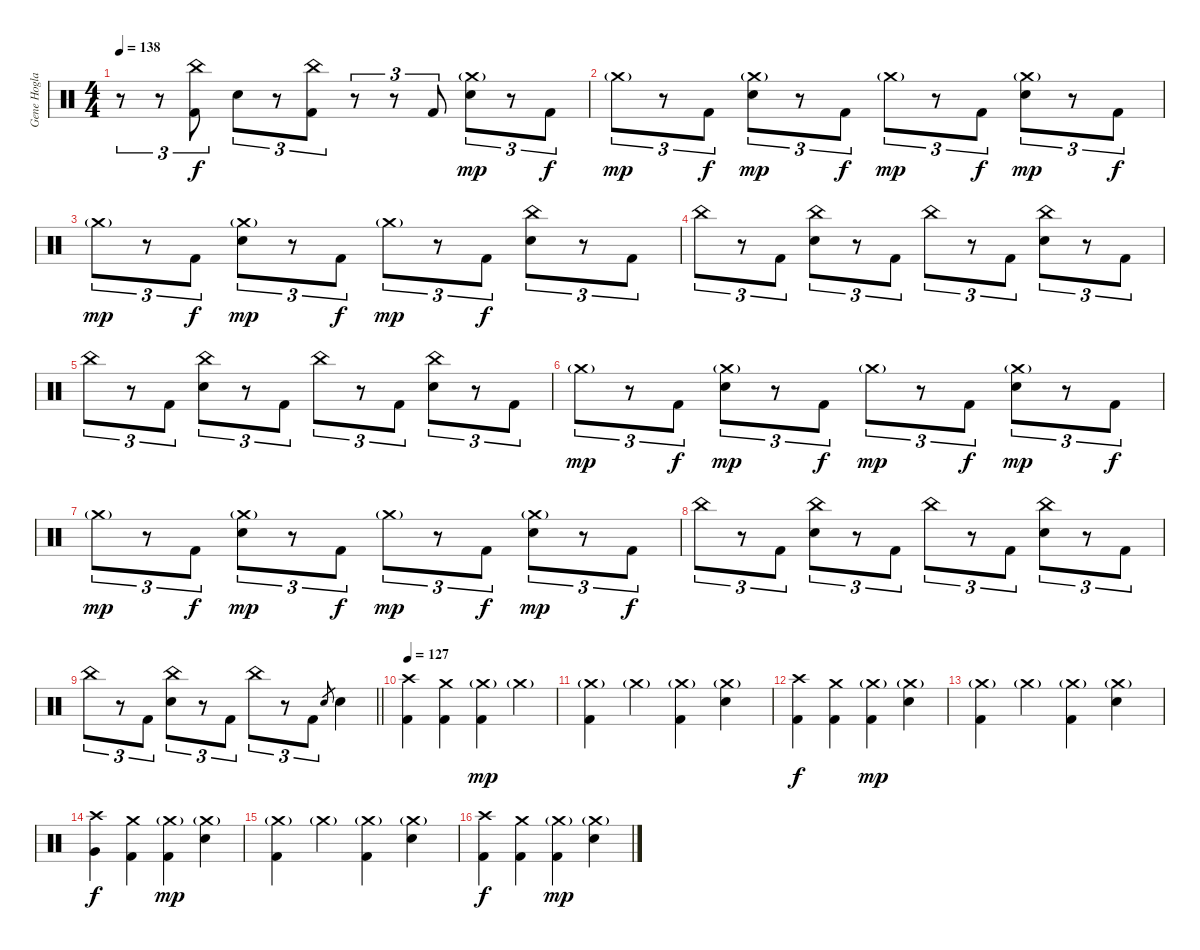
\track ("Gene Hoglan" "Gene Hogla") {instrument percussion}
\staff {score}
\articulation defaults
\ts (4 4)
\tempo 138
\clef neutral
\ks c
r.8{tu (3 2) dy f} r.8{tu (3 2)} ("China (hit)" "Kick (hit) 2").8{tu (3 2)} "Electric Snare (hit)".8{tu (3 2)} r.8{tu (3 2)} ("China (hit)" "Kick (hit) 2").8{tu (3 2)} r.8{tu (3 2)} r.8{tu (3 2)} "Kick (hit) 2".8{tu (3 2)} ("Crash medium (hit)"{g} "Electric Snare (hit)").8{tu (3 2) dy mp} r.8{tu (3 2)} "Kick (hit) 2".8{tu (3 2) dy f} |
"Crash medium (hit)"{g}.8{tu (3 2) dy mp} r.8{tu (3 2)} "Kick (hit) 2".8{tu (3 2) dy f} ("Crash medium (hit)"{g} "Electric Snare (hit)").8{tu (3 2) dy mp} r.8{tu (3 2)} "Kick (hit) 2".8{tu (3 2) dy f} "Crash medium (hit)"{g}.8{tu (3 2) dy mp} r.8{tu (3 2)} "Kick (hit) 2".8{tu (3 2) dy f} ("Crash medium (hit)"{g} "Electric Snare (hit)").8{tu (3 2) dy mp} r.8{tu (3 2)} "Kick (hit) 2".8{tu (3 2) dy f} |
"Crash medium (hit)"{g}.8{tu (3 2) dy mp} r.8{tu (3 2)} "Kick (hit) 2".8{tu (3 2) dy f} ("Crash medium (hit)"{g} "Electric Snare (hit)").8{tu (3 2) dy mp} r.8{tu (3 2)} "Kick (hit) 2".8{tu (3 2) dy f} "Crash medium (hit)"{g}.8{tu (3 2) dy mp} r.8{tu (3 2)} "Kick (hit) 2".8{tu (3 2) dy f} ("China (hit)" "Electric Snare (hit)").8{tu (3 2)} r.8{tu (3 2)} "Kick (hit) 2".8{tu (3 2)} |
"China (hit)".8{tu (3 2)} r.8{tu (3 2)} "Kick (hit) 2".8{tu (3 2)} ("China (hit)" "Electric Snare (hit)").8{tu (3 2)} r.8{tu (3 2)} "Kick (hit) 2".8{tu (3 2)} "China (hit)".8{tu (3 2)} r.8{tu (3 2)} "Kick (hit) 2".8{tu (3 2)} ("China (hit)" "Electric Snare (hit)").8{tu (3 2)} r.8{tu (3 2)} "Kick (hit) 2".8{tu (3 2)} |
"China (hit)".8{tu (3 2)} r.8{tu (3 2)} "Kick (hit) 2".8{tu (3 2)} ("China (hit)" "Electric Snare (hit)").8{tu (3 2)} r.8{tu (3 2)} "Kick (hit) 2".8{tu (3 2)} "China (hit)".8{tu (3 2)} r.8{tu (3 2)} "Kick (hit) 2".8{tu (3 2)} ("China (hit)" "Electric Snare (hit)").8{tu (3 2)} r.8{tu (3 2)} "Kick (hit) 2".8{tu (3 2)} |
"Crash medium (hit)"{g}.8{tu (3 2) dy mp} r.8{tu (3 2)} "Kick (hit) 2".8{tu (3 2) dy f} ("Crash medium (hit)"{g} "Electric Snare (hit)").8{tu (3 2) dy mp} r.8{tu (3 2)} "Kick (hit) 2".8{tu (3 2) dy f} "Crash medium (hit)"{g}.8{tu (3 2) dy mp} r.8{tu (3 2)} "Kick (hit) 2".8{tu (3 2) dy f} ("Crash medium (hit)"{g} "Electric Snare (hit)").8{tu (3 2) dy mp} r.8{tu (3 2)} "Kick (hit) 2".8{tu (3 2) dy f} |
"Crash medium (hit)"{g}.8{tu (3 2) dy mp} r.8{tu (3 2)} "Kick (hit) 2".8{tu (3 2) dy f} ("Crash medium (hit)"{g} "Electric Snare (hit)").8{tu (3 2) dy mp} r.8{tu (3 2)} "Kick (hit) 2".8{tu (3 2) dy f} "Crash medium (hit)"{g}.8{tu (3 2) dy mp} r.8{tu (3 2)} "Kick (hit) 2".8{tu (3 2) dy f} ("Crash medium (hit)"{g} "Electric Snare (hit)").8{tu (3 2) dy mp} r.8{tu (3 2)} "Kick (hit) 2".8{tu (3 2) dy f} |
"China (hit)".8{tu (3 2)} r.8{tu (3 2)} "Kick (hit) 2".8{tu (3 2)} ("China (hit)" "Electric Snare (hit)").8{tu (3 2)} r.8{tu (3 2)} "Kick (hit) 2".8{tu (3 2)} "China (hit)".8{tu (3 2)} r.8{tu (3 2)} "Kick (hit) 2".8{tu (3 2)} ("China (hit)" "Electric Snare (hit)").8{tu (3 2)} r.8{tu (3 2)} "Kick (hit) 2".8{tu (3 2)} |
\barLineRight lightlight "China (hit)".8{tu (3 2)}
r.8{tu (3 2)} "Kick (hit) 2".8{tu (3 2)} ("China (hit)" "Electric Snare (hit)").8{tu (3 2)} r.8{tu (3 2)} "Kick (hit) 2".8{tu (3 2)} "China (hit)".8{tu (3 2)} r.8{tu (3 2)} "Kick (hit) 2".8{tu (3 2)} "Electric Snare (hit)".8{gr} "Electric Snare (hit)".4 |
\tempo 127
("Crash high (hit)" "Kick (hit) 2").4 ("Crash medium (hit)" "Kick (hit) 2").4 ("Crash medium (hit)"{g} "Kick (hit) 2").4{dy mp} "Crash medium (hit)"{g}.4 |
("Crash medium (hit)"{g} "Kick (hit) 2").4 "Crash medium (hit)"{g}.4 ("Crash medium (hit)"{g} "Kick (hit) 2").4 ("Crash medium (hit)"{g} "Electric Snare (hit)").4 |
("Crash high (hit)" "Kick (hit) 2").4{dy f} ("Crash medium (hit)" "Kick (hit) 2").4 ("Crash medium (hit)"{g} "Kick (hit) 2").4{dy mp} ("Crash medium (hit)"{g} "Electric Snare (hit)").4 |
("Crash medium (hit)"{g} "Kick (hit) 2").4 "Crash medium (hit)"{g}.4 ("Crash medium (hit)"{g} "Kick (hit) 2").4 ("Crash medium (hit)"{g} "Electric Snare (hit)").4 |
("Crash high (hit)" "Very Low Tom (hit)").4{dy f} ("Crash medium (hit)" "Kick (hit) 2").4 ("Crash medium (hit)"{g} "Kick (hit) 2").4{dy mp} ("Crash medium (hit)"{g} "Electric Snare (hit)").4 |
("Crash medium (hit)"{g} "Kick (hit) 2").4 "Crash medium (hit)"{g}.4 ("Crash medium (hit)"{g} "Kick (hit) 2").4 ("Crash medium (hit)"{g} "Electric Snare (hit)").4 |
("Crash high (hit)" "Kick (hit) 2").4{dy f} ("Crash medium (hit)" "Kick (hit) 2").4 ("Crash medium (hit)"{g} "Kick (hit) 2").4{dy mp} ("Crash medium (hit)"{g} "Electric Snare (hit)").4
